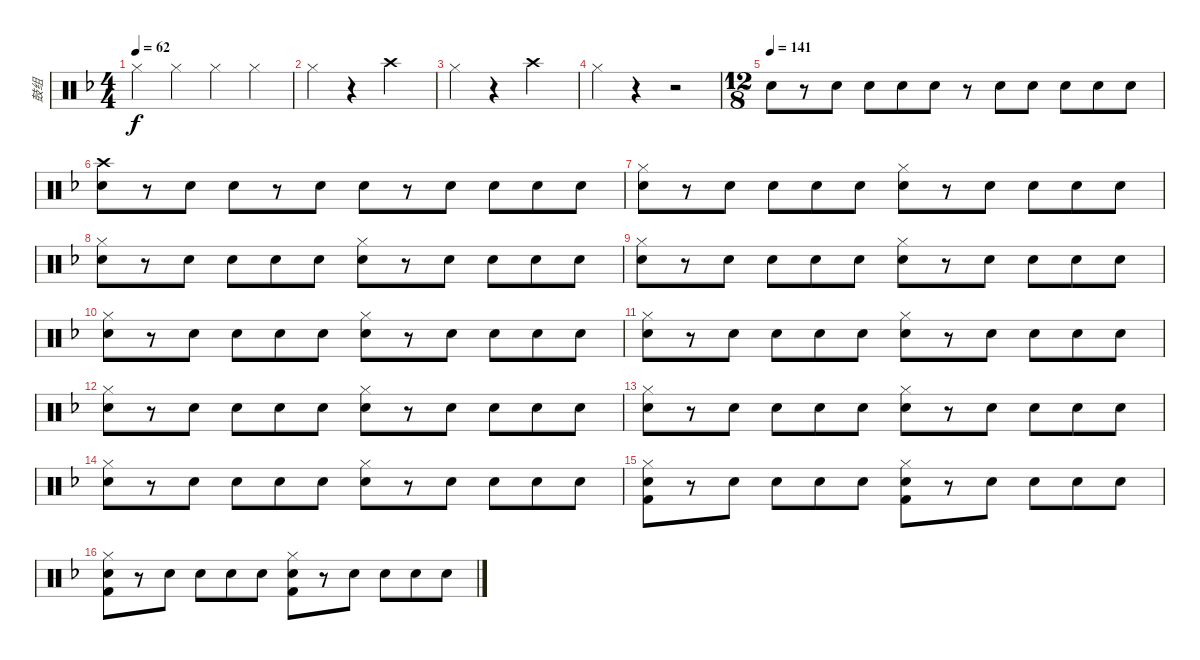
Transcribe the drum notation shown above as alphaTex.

\track ("鼓组" "鼓组") {instrument percussion}
\staff {score}
\articulation defaults
\ts (4 4)
\tempo 62
\clef neutral
\ks f "Hi-Hat (closed)".4{dy f} "Hi-Hat (closed)".4 "Hi-Hat (closed)".4 "Hi-Hat (closed)".4
|
"Hi-Hat (closed)".4 r.4 "Crash high (hit)".2 |
"Hi-Hat (closed)".4 r.4 "Crash high (hit)".2 |
"Hi-Hat (closed)".4 r.4 r.2 |
\ts (12 8)
\tempo 142
\tempo (141)
"Snare (hit) 2".8{volume 10} r.8 "Snare (hit) 2".8 "Snare (hit) 2".8 "Snare (hit) 2".8 "Snare (hit) 2".8 r.8 "Snare (hit) 2".8 "Snare (hit) 2".8 "Snare (hit) 2".8 "Snare (hit) 2".8 "Snare (hit) 2".8 |
("Snare (hit) 2" "Crash high (hit)").8 r.8 "Snare (hit) 2".8 "Snare (hit) 2".8 r.8 "Snare (hit) 2".8 "Snare (hit) 2".8 r.8 "Snare (hit) 2".8 "Snare (hit) 2".8 "Snare (hit) 2".8 "Snare (hit) 2".8 |
("Snare (hit) 2" "Hi-Hat (closed)").8 r.8 "Snare (hit) 2".8 "Snare (hit) 2".8 "Snare (hit) 2".8 "Snare (hit) 2".8 ("Snare (hit) 2" "Hi-Hat (closed)").8 r.8 "Snare (hit) 2".8 "Snare (hit) 2".8 "Snare (hit) 2".8 "Snare (hit) 2".8 |
("Snare (hit) 2" "Hi-Hat (closed)").8 r.8 "Snare (hit) 2".8 "Snare (hit) 2".8 "Snare (hit) 2".8 "Snare (hit) 2".8 ("Snare (hit) 2" "Hi-Hat (closed)").8 r.8 "Snare (hit) 2".8 "Snare (hit) 2".8 "Snare (hit) 2".8 "Snare (hit) 2".8 |
("Snare (hit) 2" "Hi-Hat (closed)").8 r.8 "Snare (hit) 2".8 "Snare (hit) 2".8 "Snare (hit) 2".8 "Snare (hit) 2".8 ("Snare (hit) 2" "Hi-Hat (closed)").8 r.8 "Snare (hit) 2".8 "Snare (hit) 2".8 "Snare (hit) 2".8 "Snare (hit) 2".8 |
("Snare (hit) 2" "Hi-Hat (closed)").8 r.8 "Snare (hit) 2".8 "Snare (hit) 2".8 "Snare (hit) 2".8 "Snare (hit) 2".8 ("Snare (hit) 2" "Hi-Hat (closed)").8 r.8 "Snare (hit) 2".8 "Snare (hit) 2".8 "Snare (hit) 2".8 "Snare (hit) 2".8 |
("Snare (hit) 2" "Hi-Hat (closed)").8 r.8 "Snare (hit) 2".8 "Snare (hit) 2".8 "Snare (hit) 2".8 "Snare (hit) 2".8 ("Snare (hit) 2" "Hi-Hat (closed)").8 r.8 "Snare (hit) 2".8 "Snare (hit) 2".8 "Snare (hit) 2".8 "Snare (hit) 2".8 |
("Snare (hit) 2" "Hi-Hat (closed)").8 r.8 "Snare (hit) 2".8 "Snare (hit) 2".8 "Snare (hit) 2".8 "Snare (hit) 2".8 ("Snare (hit) 2" "Hi-Hat (closed)").8 r.8 "Snare (hit) 2".8 "Snare (hit) 2".8 "Snare (hit) 2".8 "Snare (hit) 2".8 |
("Snare (hit) 2" "Hi-Hat (closed)").8 r.8 "Snare (hit) 2".8 "Snare (hit) 2".8 "Snare (hit) 2".8 "Snare (hit) 2".8 ("Snare (hit) 2" "Hi-Hat (closed)").8 r.8 "Snare (hit) 2".8 "Snare (hit) 2".8 "Snare (hit) 2".8 "Snare (hit) 2".8 |
("Snare (hit) 2" "Hi-Hat (closed)").8 r.8 "Snare (hit) 2".8 "Snare (hit) 2".8 "Snare (hit) 2".8 "Snare (hit) 2".8 ("Snare (hit) 2" "Hi-Hat (closed)").8 r.8 "Snare (hit) 2".8 "Snare (hit) 2".8 "Snare (hit) 2".8 "Snare (hit) 2".8 |
("Snare (hit) 2" "Hi-Hat (closed)" "Kick (hit) 2").8{volume 13} r.8 "Snare (hit) 2".8 "Snare (hit) 2".8 "Snare (hit) 2".8 "Snare (hit) 2".8 ("Snare (hit) 2" "Hi-Hat (closed)" "Kick (hit) 2").8 r.8 "Snare (hit) 2".8 "Snare (hit) 2".8 "Snare (hit) 2".8 "Snare (hit) 2".8 |
("Snare (hit) 2" "Hi-Hat (closed)" "Kick (hit) 2").8 r.8 "Snare (hit) 2".8 "Snare (hit) 2".8 "Snare (hit) 2".8 "Snare (hit) 2".8 ("Snare (hit) 2" "Hi-Hat (closed)" "Kick (hit) 2").8 r.8 "Snare (hit) 2".8 "Snare (hit) 2".8 "Snare (hit) 2".8 "Snare (hit) 2".8
